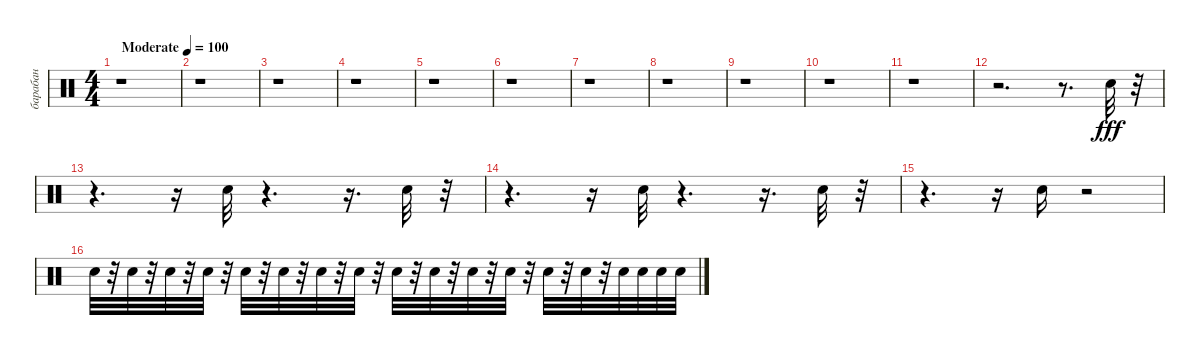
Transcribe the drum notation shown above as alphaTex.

\track ("барабан" "барабан") {instrument percussion}
\staff {score}
\articulation defaults
\ts (4 4)
\tempo (100 "Moderate")
\clef neutral
\ks c
r.1{dy fff} |
r.1 |
r.1 |
r.1 |
r.1 |
r.1 |
r.1 |
r.1 |
r.1 |
r.1 |
r.1 |
r.2{d} r.8{d} "Snare (hit) 2".32 r.32 |
r.4{d} r.16 "Snare (hit) 2".32 r.4{d} r.16{d} "Snare (hit) 2".32 r.32 |
r.4{d} r.16 "Snare (hit) 2".32 r.4{d} r.16{d} "Snare (hit) 2".32 r.32 |
r.4{d} r.16 "Snare (hit) 2".16 r.2 |
"Snare (hit) 2".32 r.32 "Snare (hit) 2".32 r.32 "Snare (hit) 2".32 r.32 "Snare (hit) 2".32 r.32 "Snare (hit) 2".32 r.32 "Snare (hit) 2".32 r.32 "Snare (hit) 2".32 r.32 "Snare (hit) 2".32 r.32 "Snare (hit) 2".32 r.32 "Snare (hit) 2".32 r.32 "Snare (hit) 2".32 r.32 "Snare (hit) 2".32 r.32 "Snare (hit) 2".32 r.32 "Snare (hit) 2".32 r.32 "Snare (hit) 2".32 "Snare (hit) 2".32 "Snare (hit) 2".32 "Snare (hit) 2".32
